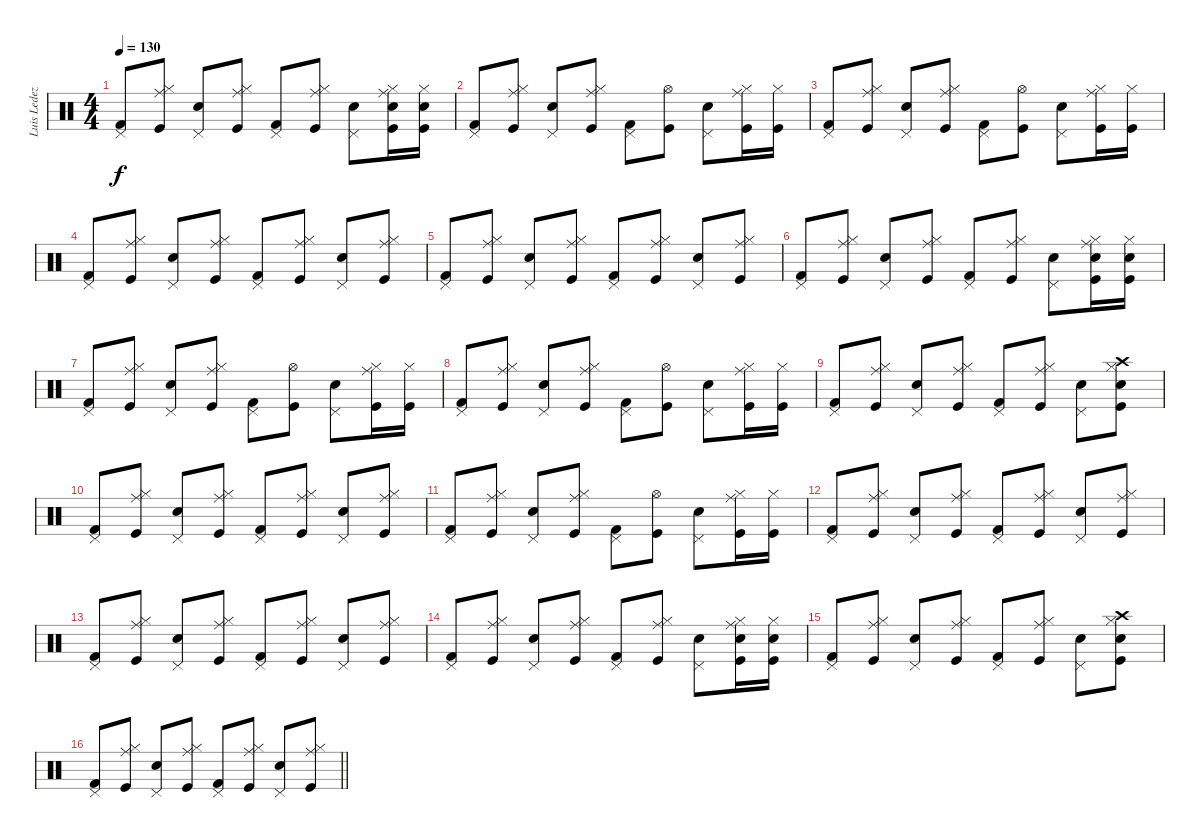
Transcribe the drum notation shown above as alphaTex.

\track ("Luis Ledezma (bateria)" "Luis Ledez") {instrument percussion}
\staff {score}
\articulation defaults
\ts (4 4)
\tempo 130
\clef neutral
\ks c
("Pedal Hi-Hat (hit)" "Kick (hit) 2").8{dy f} ("Ride (middle)" "Hi-Hat (closed)" "Kick (hit)").8 ("Pedal Hi-Hat (hit)" "Snare (hit) 2").8 ("Ride (middle)" "Hi-Hat (closed)" "Kick (hit)").8 ("Pedal Hi-Hat (hit)" "Kick (hit) 2").8 ("Ride (middle)" "Hi-Hat (closed)" "Kick (hit)").8 ("Pedal Hi-Hat (hit)" "Snare (hit) 2").8 ("Ride (middle)" "Hi-Hat (closed)" "Snare (hit) 2" "Kick (hit)").16 ("Hi-Hat (closed)" "Snare (hit) 2" "Kick (hit)").16 |
("Pedal Hi-Hat (hit)" "Kick (hit) 2").8 ("Ride (middle)" "Hi-Hat (closed)" "Kick (hit)").8 ("Pedal Hi-Hat (hit)" "Snare (hit) 2").8 ("Ride (middle)" "Hi-Hat (closed)" "Kick (hit)").8 ("Pedal Hi-Hat (hit)" "Kick (hit) 2").8 ("Hi-Hat (open)" "Kick (hit)").8 ("Pedal Hi-Hat (hit)" "Snare (hit) 2").8 ("Ride (middle)" "Hi-Hat (closed)" "Kick (hit)").16 ("Hi-Hat (closed)" "Kick (hit)").16 |
("Pedal Hi-Hat (hit)" "Kick (hit) 2").8 ("Ride (middle)" "Hi-Hat (closed)" "Kick (hit)").8 ("Pedal Hi-Hat (hit)" "Snare (hit) 2").8 ("Ride (middle)" "Hi-Hat (closed)" "Kick (hit)").8 ("Pedal Hi-Hat (hit)" "Kick (hit) 2").8 ("Hi-Hat (open)" "Kick (hit)").8 ("Pedal Hi-Hat (hit)" "Snare (hit) 2").8 ("Ride (middle)" "Hi-Hat (closed)" "Kick (hit)").16 ("Hi-Hat (closed)" "Kick (hit)").16 |
("Pedal Hi-Hat (hit)" "Kick (hit) 2").8 ("Ride (middle)" "Hi-Hat (closed)" "Kick (hit)").8 ("Pedal Hi-Hat (hit)" "Snare (hit) 2").8 ("Ride (middle)" "Hi-Hat (closed)" "Kick (hit)").8 ("Pedal Hi-Hat (hit)" "Kick (hit) 2").8 ("Ride (middle)" "Hi-Hat (closed)" "Kick (hit)").8 ("Pedal Hi-Hat (hit)" "Snare (hit) 2").8 ("Ride (middle)" "Hi-Hat (closed)" "Kick (hit)").8 |
("Pedal Hi-Hat (hit)" "Kick (hit) 2").8 ("Ride (middle)" "Hi-Hat (closed)" "Kick (hit)").8 ("Pedal Hi-Hat (hit)" "Snare (hit) 2").8 ("Ride (middle)" "Hi-Hat (closed)" "Kick (hit)").8 ("Pedal Hi-Hat (hit)" "Kick (hit) 2").8 ("Ride (middle)" "Hi-Hat (closed)" "Kick (hit)").8 ("Pedal Hi-Hat (hit)" "Snare (hit) 2").8 ("Ride (middle)" "Hi-Hat (closed)" "Kick (hit)").8 |
("Pedal Hi-Hat (hit)" "Kick (hit) 2").8 ("Ride (middle)" "Hi-Hat (closed)" "Kick (hit)").8 ("Pedal Hi-Hat (hit)" "Snare (hit) 2").8 ("Ride (middle)" "Hi-Hat (closed)" "Kick (hit)").8 ("Pedal Hi-Hat (hit)" "Kick (hit) 2").8 ("Ride (middle)" "Hi-Hat (closed)" "Kick (hit)").8 ("Pedal Hi-Hat (hit)" "Snare (hit) 2").8 ("Ride (middle)" "Hi-Hat (closed)" "Snare (hit) 2" "Kick (hit)").16 ("Hi-Hat (closed)" "Snare (hit) 2" "Kick (hit)").16 |
("Pedal Hi-Hat (hit)" "Kick (hit) 2").8 ("Ride (middle)" "Hi-Hat (closed)" "Kick (hit)").8 ("Pedal Hi-Hat (hit)" "Snare (hit) 2").8 ("Ride (middle)" "Hi-Hat (closed)" "Kick (hit)").8 ("Pedal Hi-Hat (hit)" "Kick (hit) 2").8 ("Hi-Hat (open)" "Kick (hit)").8 ("Pedal Hi-Hat (hit)" "Snare (hit) 2").8 ("Ride (middle)" "Hi-Hat (closed)" "Kick (hit)").16 ("Hi-Hat (closed)" "Kick (hit)").16 |
("Pedal Hi-Hat (hit)" "Kick (hit) 2").8 ("Ride (middle)" "Hi-Hat (closed)" "Kick (hit)").8 ("Pedal Hi-Hat (hit)" "Snare (hit) 2").8 ("Ride (middle)" "Hi-Hat (closed)" "Kick (hit)").8 ("Pedal Hi-Hat (hit)" "Kick (hit) 2").8 ("Hi-Hat (open)" "Kick (hit)").8 ("Pedal Hi-Hat (hit)" "Snare (hit) 2").8 ("Ride (middle)" "Hi-Hat (closed)" "Kick (hit)").16 ("Hi-Hat (closed)" "Kick (hit)").16 |
("Pedal Hi-Hat (hit)" "Kick (hit) 2").8 ("Ride (middle)" "Hi-Hat (closed)" "Kick (hit)").8 ("Pedal Hi-Hat (hit)" "Snare (hit) 2").8 ("Ride (middle)" "Hi-Hat (closed)" "Kick (hit)").8 ("Pedal Hi-Hat (hit)" "Kick (hit) 2").8 ("Ride (middle)" "Hi-Hat (closed)" "Kick (hit)").8 ("Pedal Hi-Hat (hit)" "Snare (hit) 2").8 ("Crash high (hit)" "Hi-Hat (closed)" "Snare (hit) 2" "Kick (hit)").8 |
("Pedal Hi-Hat (hit)" "Kick (hit) 2").8 ("Ride (middle)" "Hi-Hat (closed)" "Kick (hit)").8 ("Pedal Hi-Hat (hit)" "Snare (hit) 2").8 ("Ride (middle)" "Hi-Hat (closed)" "Kick (hit)").8 ("Pedal Hi-Hat (hit)" "Kick (hit) 2").8 ("Ride (middle)" "Hi-Hat (closed)" "Kick (hit)").8 ("Pedal Hi-Hat (hit)" "Snare (hit) 2").8 ("Ride (middle)" "Hi-Hat (closed)" "Kick (hit)").8 |
("Pedal Hi-Hat (hit)" "Kick (hit) 2").8 ("Ride (middle)" "Hi-Hat (closed)" "Kick (hit)").8 ("Pedal Hi-Hat (hit)" "Snare (hit) 2").8 ("Ride (middle)" "Hi-Hat (closed)" "Kick (hit)").8 ("Pedal Hi-Hat (hit)" "Kick (hit) 2").8 ("Hi-Hat (open)" "Kick (hit)").8 ("Pedal Hi-Hat (hit)" "Snare (hit) 2").8 ("Ride (middle)" "Hi-Hat (closed)" "Kick (hit)").16 ("Hi-Hat (closed)" "Kick (hit)").16 |
("Pedal Hi-Hat (hit)" "Kick (hit) 2").8 ("Ride (middle)" "Hi-Hat (closed)" "Kick (hit)").8 ("Pedal Hi-Hat (hit)" "Snare (hit) 2").8 ("Ride (middle)" "Hi-Hat (closed)" "Kick (hit)").8 ("Pedal Hi-Hat (hit)" "Kick (hit) 2").8 ("Ride (middle)" "Hi-Hat (closed)" "Kick (hit)").8 ("Pedal Hi-Hat (hit)" "Snare (hit) 2").8 ("Ride (middle)" "Hi-Hat (closed)" "Kick (hit)").8 |
("Pedal Hi-Hat (hit)" "Kick (hit) 2").8 ("Ride (middle)" "Hi-Hat (closed)" "Kick (hit)").8 ("Pedal Hi-Hat (hit)" "Snare (hit) 2").8 ("Ride (middle)" "Hi-Hat (closed)" "Kick (hit)").8 ("Pedal Hi-Hat (hit)" "Kick (hit) 2").8 ("Ride (middle)" "Hi-Hat (closed)" "Kick (hit)").8 ("Pedal Hi-Hat (hit)" "Snare (hit) 2").8 ("Ride (middle)" "Hi-Hat (closed)" "Kick (hit)").8 |
("Pedal Hi-Hat (hit)" "Kick (hit) 2").8 ("Ride (middle)" "Hi-Hat (closed)" "Kick (hit)").8 ("Pedal Hi-Hat (hit)" "Snare (hit) 2").8 ("Ride (middle)" "Hi-Hat (closed)" "Kick (hit)").8 ("Pedal Hi-Hat (hit)" "Kick (hit) 2").8 ("Ride (middle)" "Hi-Hat (closed)" "Kick (hit)").8 ("Pedal Hi-Hat (hit)" "Snare (hit) 2").8 ("Ride (middle)" "Hi-Hat (closed)" "Snare (hit) 2" "Kick (hit)").16 ("Hi-Hat (closed)" "Snare (hit) 2" "Kick (hit)").16 |
("Pedal Hi-Hat (hit)" "Kick (hit) 2").8 ("Ride (middle)" "Hi-Hat (closed)" "Kick (hit)").8 ("Pedal Hi-Hat (hit)" "Snare (hit) 2").8 ("Ride (middle)" "Hi-Hat (closed)" "Kick (hit)").8 ("Pedal Hi-Hat (hit)" "Kick (hit) 2").8 ("Ride (middle)" "Hi-Hat (closed)" "Kick (hit)").8 ("Pedal Hi-Hat (hit)" "Snare (hit) 2").8 ("Crash high (hit)" "Hi-Hat (closed)" "Snare (hit) 2" "Kick (hit)").8 |
\barLineRight lightlight
("Pedal Hi-Hat (hit)" "Kick (hit) 2").8 ("Ride (middle)" "Hi-Hat (closed)" "Kick (hit)").8 ("Pedal Hi-Hat (hit)" "Snare (hit) 2").8 ("Ride (middle)" "Hi-Hat (closed)" "Kick (hit)").8 ("Pedal Hi-Hat (hit)" "Kick (hit) 2").8 ("Ride (middle)" "Hi-Hat (closed)" "Kick (hit)").8 ("Pedal Hi-Hat (hit)" "Snare (hit) 2").8 ("Ride (middle)" "Hi-Hat (closed)" "Kick (hit)").8
